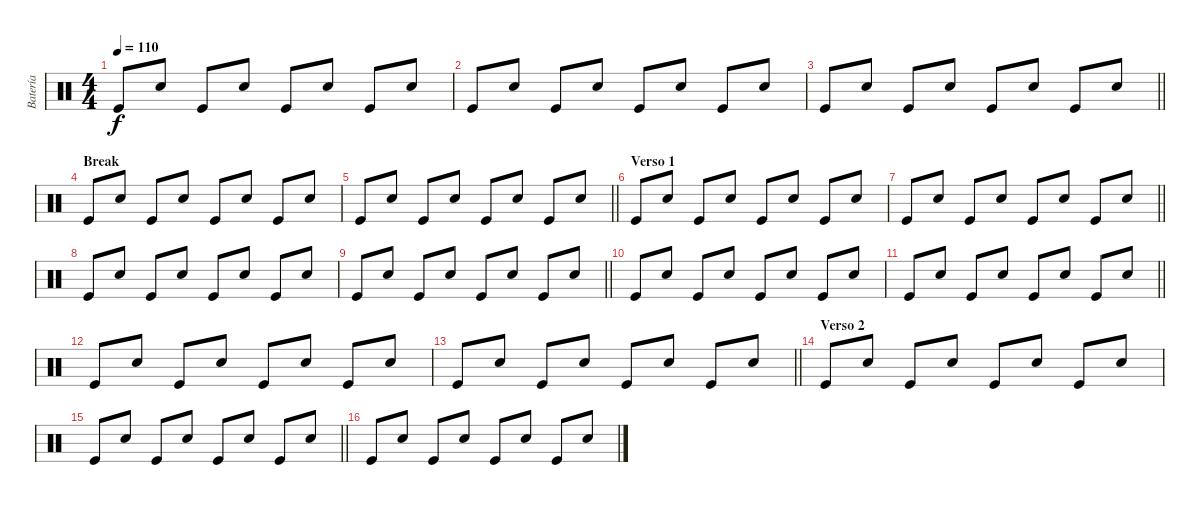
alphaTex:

\track ("Batería" "Batería") {instrument percussion}
\staff {score}
\articulation defaults
\ts (4 4)
\tempo 110
\clef neutral
\ks c "Kick (hit)".8{dy f} "Electric Snare (hit)".8 "Kick (hit)".8 "Electric Snare (hit)".8 "Kick (hit)".8 "Electric Snare (hit)".8 "Kick (hit)".8 "Electric Snare (hit)".8
|
"Kick (hit)".8 "Electric Snare (hit)".8 "Kick (hit)".8 "Electric Snare (hit)".8 "Kick (hit)".8 "Electric Snare (hit)".8 "Kick (hit)".8 "Electric Snare (hit)".8 |
\barLineRight lightlight "Kick (hit)".8 "Electric Snare (hit)".8 "Kick (hit)".8 "Electric Snare (hit)".8 "Kick (hit)".8 "Electric Snare (hit)".8 "Kick (hit)".8 "Electric Snare (hit)".8
|
\section ("" "Break")
"Kick (hit)".8 "Electric Snare (hit)".8 "Kick (hit)".8 "Electric Snare (hit)".8 "Kick (hit)".8 "Electric Snare (hit)".8 "Kick (hit)".8 "Electric Snare (hit)".8 |
\barLineRight lightlight "Kick (hit)".8 "Electric Snare (hit)".8 "Kick (hit)".8 "Electric Snare (hit)".8 "Kick (hit)".8 "Electric Snare (hit)".8 "Kick (hit)".8 "Electric Snare (hit)".8
|
\section ("" "Verso 1")
"Kick (hit)".8 "Electric Snare (hit)".8 "Kick (hit)".8 "Electric Snare (hit)".8 "Kick (hit)".8 "Electric Snare (hit)".8 "Kick (hit)".8 "Electric Snare (hit)".8 |
\barLineRight lightlight "Kick (hit)".8 "Electric Snare (hit)".8 "Kick (hit)".8 "Electric Snare (hit)".8 "Kick (hit)".8 "Electric Snare (hit)".8 "Kick (hit)".8 "Electric Snare (hit)".8
|
"Kick (hit)".8 "Electric Snare (hit)".8 "Kick (hit)".8 "Electric Snare (hit)".8 "Kick (hit)".8 "Electric Snare (hit)".8 "Kick (hit)".8 "Electric Snare (hit)".8 |
\barLineRight lightlight "Kick (hit)".8 "Electric Snare (hit)".8 "Kick (hit)".8 "Electric Snare (hit)".8 "Kick (hit)".8 "Electric Snare (hit)".8 "Kick (hit)".8 "Electric Snare (hit)".8
|
"Kick (hit)".8 "Electric Snare (hit)".8 "Kick (hit)".8 "Electric Snare (hit)".8 "Kick (hit)".8 "Electric Snare (hit)".8 "Kick (hit)".8 "Electric Snare (hit)".8 |
\barLineRight lightlight "Kick (hit)".8 "Electric Snare (hit)".8 "Kick (hit)".8 "Electric Snare (hit)".8 "Kick (hit)".8 "Electric Snare (hit)".8 "Kick (hit)".8 "Electric Snare (hit)".8
|
"Kick (hit)".8 "Electric Snare (hit)".8 "Kick (hit)".8 "Electric Snare (hit)".8 "Kick (hit)".8 "Electric Snare (hit)".8 "Kick (hit)".8 "Electric Snare (hit)".8 |
\barLineRight lightlight "Kick (hit)".8 "Electric Snare (hit)".8 "Kick (hit)".8 "Electric Snare (hit)".8 "Kick (hit)".8 "Electric Snare (hit)".8 "Kick (hit)".8 "Electric Snare (hit)".8
|
\section ("" "Verso 2")
"Kick (hit)".8 "Electric Snare (hit)".8 "Kick (hit)".8 "Electric Snare (hit)".8 "Kick (hit)".8 "Electric Snare (hit)".8 "Kick (hit)".8 "Electric Snare (hit)".8 |
\barLineRight lightlight "Kick (hit)".8 "Electric Snare (hit)".8 "Kick (hit)".8 "Electric Snare (hit)".8 "Kick (hit)".8 "Electric Snare (hit)".8 "Kick (hit)".8 "Electric Snare (hit)".8
|
"Kick (hit)".8 "Electric Snare (hit)".8 "Kick (hit)".8 "Electric Snare (hit)".8 "Kick (hit)".8 "Electric Snare (hit)".8 "Kick (hit)".8 "Electric Snare (hit)".8
